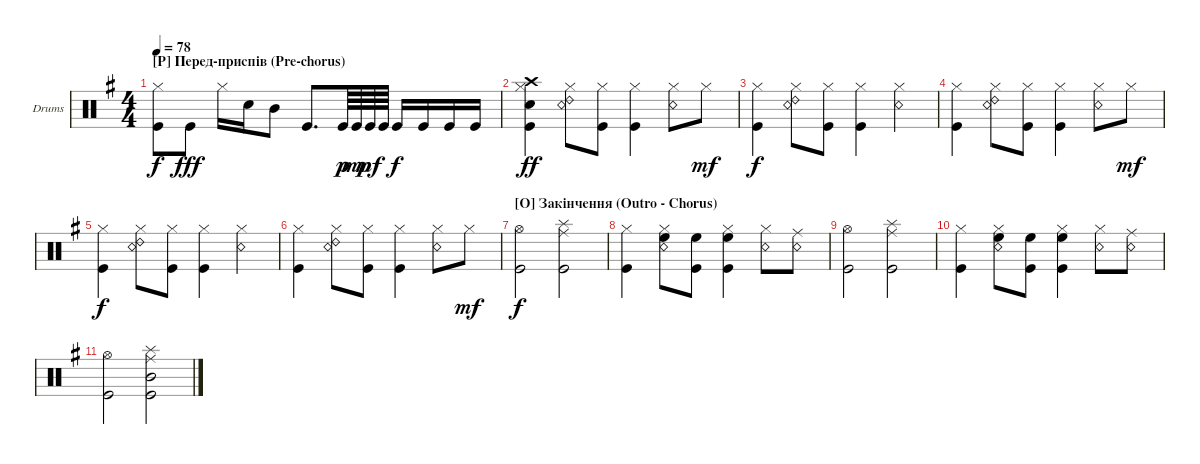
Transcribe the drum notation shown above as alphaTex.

\defaultSystemsLayout 4
\bracketExtendMode groupsimilarinstruments
\firstSystemTrackNameOrientation horizontal
\otherSystemsTrackNameOrientation horizontal
\track ("Drumkit (Darrell Sweet)" "Drums") {instrument percussion}
\staff {score}
\articulation defaults
\ts (4 4)
\section ("P" "Перед-приспів (Pre-chorus)")
\tempo 78
\clef neutral
\ks eminor
("Hi-Hat (closed)" "Kick (hit)").8{dy f} "Kick (hit)".8{dy fff} "Hi-Hat (closed)".16 "Snare (hit) 2".16 "Mid Tom (hit)".8 "Kick (hit)".8{d} "Kick (hit)".64{dy p} "Kick (hit)".64{dy mp} "Kick (hit)".64{dy mf} "Kick (hit)".64 "Kick (hit)".16{dy f} "Kick (hit)".16 "Kick (hit)".16 "Kick (hit)".16 |
("Kick (hit)" "Crash high (hit)" "Snare (hit) 2" "Hi-Hat (closed)").4{dy ff} ("Snare (rim shot)" "Hi-Hat (closed)" "Ride (bell) 2").8 ("Hi-Hat (closed)" "Kick (hit)").8 ("Hi-Hat (closed)" "Kick (hit)").4 ("Snare (rim shot)" "Hi-Hat (closed)").8 "Hi-Hat (closed)".8{dy mf} |
("Hi-Hat (closed)" "Kick (hit)").4{dy f} ("Snare (rim shot)" "Hi-Hat (closed)" "Ride (bell) 2").8 ("Hi-Hat (closed)" "Kick (hit)").8 ("Hi-Hat (closed)" "Kick (hit)").4 ("Snare (rim shot)" "Hi-Hat (closed)").4 |
("Hi-Hat (closed)" "Kick (hit)").4 ("Snare (rim shot)" "Hi-Hat (closed)" "Ride (bell) 2").8 ("Hi-Hat (closed)" "Kick (hit)").8 ("Hi-Hat (closed)" "Kick (hit)").4 ("Snare (rim shot)" "Hi-Hat (closed)").8 "Hi-Hat (closed)".8{dy mf} |
("Hi-Hat (closed)" "Kick (hit)").4{dy f} ("Snare (rim shot)" "Hi-Hat (closed)" "Ride (bell) 2").8 ("Hi-Hat (closed)" "Kick (hit)").8 ("Hi-Hat (closed)" "Kick (hit)").4 ("Snare (rim shot)" "Hi-Hat (closed)").4 |
("Hi-Hat (closed)" "Kick (hit)").4 ("Snare (rim shot)" "Hi-Hat (closed)" "Ride (bell) 2").8 ("Hi-Hat (closed)" "Kick (hit)").8 ("Hi-Hat (closed)" "Kick (hit)").4 ("Snare (rim shot)" "Hi-Hat (closed)").8 "Hi-Hat (closed)".8{dy mf} |
\section ("O" "Закінчення (Outro - Chorus)")
("Kick (hit)" "Hi-Hat (open)").2{dy f} ("Kick (hit)" "Ride (middle)" "Splash (hit)").2 |
("Hi-Hat (closed)" "Kick (hit)").4 ("Snare (rim shot)" "Hi-Hat (closed)" "High Floor Tom (hit)").8 ("Kick (hit)" "High Floor Tom (hit)").8 ("Hi-Hat (closed)" "Kick (hit)" "High Floor Tom (hit)").4 ("Snare (rim shot)" "Hi-Hat (closed)").8 ("Snare (rim shot)" "Ride (middle)").8 |
("Kick (hit)" "Hi-Hat (open)").2 ("Kick (hit)" "Ride (middle)" "Splash (hit)").2 |
("Hi-Hat (closed)" "Kick (hit)").4 ("Snare (rim shot)" "Hi-Hat (closed)" "High Floor Tom (hit)").8 ("Kick (hit)" "High Floor Tom (hit)").8 ("Hi-Hat (closed)" "Kick (hit)" "High Floor Tom (hit)").4 ("Snare (rim shot)" "Hi-Hat (closed)").8 ("Snare (rim shot)" "Ride (middle)").8 |
("Kick (hit)" "Hi-Hat (open)").2 ("Kick (hit)" "Ride (middle)" "Splash (hit)" "Mid Tom (hit)").2
